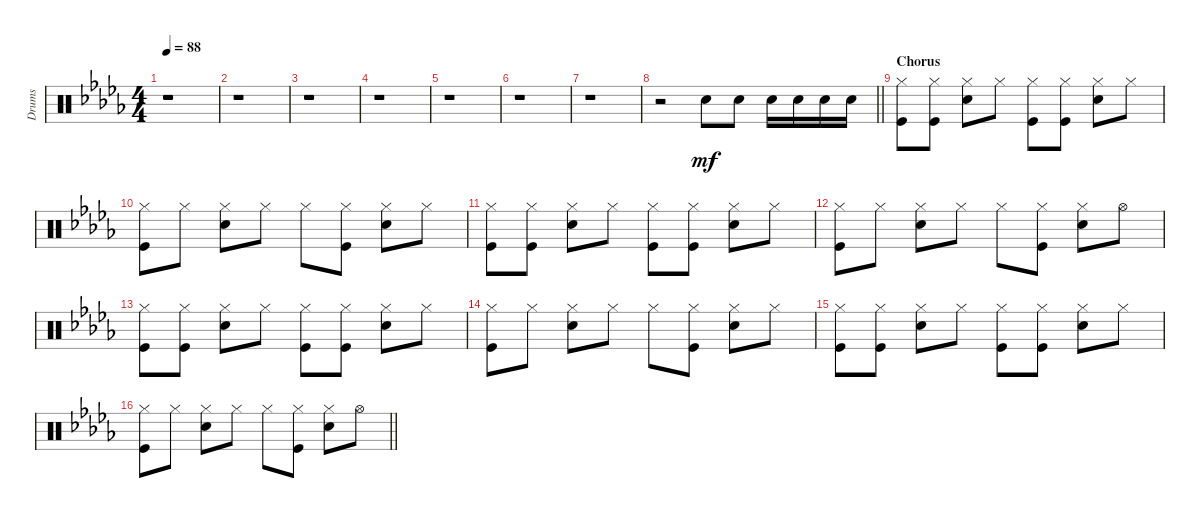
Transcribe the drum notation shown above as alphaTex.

\track ("Drums" "Drums") {instrument percussion}
\staff {score}
\articulation defaults
\ts (4 4)
\tempo 88
\clef neutral
\ks bbminor
r.1{dy mf} |
r.1 |
r.1 |
r.1 |
r.1 |
r.1 |
r.1 |
\barLineRight lightlight
r.2 "Electric Snare (hit)".8 "Electric Snare (hit)".8 "Electric Snare (hit)".16 "Electric Snare (hit)".16 "Electric Snare (hit)".16 "Electric Snare (hit)".16 |
\section ("" "Chorus")
("Hi-Hat (closed)" "Kick (hit)").8 ("Hi-Hat (closed)" "Kick (hit)").8 ("Hi-Hat (closed)" "Electric Snare (hit)").8 "Hi-Hat (closed)".8 ("Hi-Hat (closed)" "Kick (hit)").8 ("Hi-Hat (closed)" "Kick (hit)").8 ("Hi-Hat (closed)" "Electric Snare (hit)").8 "Hi-Hat (closed)".8 |
("Hi-Hat (closed)" "Kick (hit)").8 "Hi-Hat (closed)".8 ("Hi-Hat (closed)" "Electric Snare (hit)").8 "Hi-Hat (closed)".8 "Hi-Hat (closed)".8 ("Hi-Hat (closed)" "Kick (hit)").8 ("Hi-Hat (closed)" "Electric Snare (hit)").8 "Hi-Hat (closed)".8 |
("Hi-Hat (closed)" "Kick (hit)").8 ("Hi-Hat (closed)" "Kick (hit)").8 ("Hi-Hat (closed)" "Electric Snare (hit)").8 "Hi-Hat (closed)".8 ("Hi-Hat (closed)" "Kick (hit)").8 ("Hi-Hat (closed)" "Kick (hit)").8 ("Hi-Hat (closed)" "Electric Snare (hit)").8 "Hi-Hat (closed)".8 |
("Hi-Hat (closed)" "Kick (hit)").8 "Hi-Hat (closed)".8 ("Hi-Hat (closed)" "Electric Snare (hit)").8 "Hi-Hat (closed)".8 "Hi-Hat (closed)".8 ("Hi-Hat (closed)" "Kick (hit)").8 ("Hi-Hat (closed)" "Electric Snare (hit)").8 "Hi-Hat (open)".8 |
("Hi-Hat (closed)" "Kick (hit)").8 ("Hi-Hat (closed)" "Kick (hit)").8 ("Hi-Hat (closed)" "Electric Snare (hit)").8 "Hi-Hat (closed)".8 ("Hi-Hat (closed)" "Kick (hit)").8 ("Hi-Hat (closed)" "Kick (hit)").8 ("Hi-Hat (closed)" "Electric Snare (hit)").8 "Hi-Hat (closed)".8 |
("Hi-Hat (closed)" "Kick (hit)").8 "Hi-Hat (closed)".8 ("Hi-Hat (closed)" "Electric Snare (hit)").8 "Hi-Hat (closed)".8 "Hi-Hat (closed)".8 ("Hi-Hat (closed)" "Kick (hit)").8 ("Hi-Hat (closed)" "Electric Snare (hit)").8 "Hi-Hat (closed)".8 |
("Hi-Hat (closed)" "Kick (hit)").8 ("Hi-Hat (closed)" "Kick (hit)").8 ("Hi-Hat (closed)" "Electric Snare (hit)").8 "Hi-Hat (closed)".8 ("Hi-Hat (closed)" "Kick (hit)").8 ("Hi-Hat (closed)" "Kick (hit)").8 ("Hi-Hat (closed)" "Electric Snare (hit)").8 "Hi-Hat (closed)".8 |
\barLineRight lightlight
("Hi-Hat (closed)" "Kick (hit)").8 "Hi-Hat (closed)".8 ("Hi-Hat (closed)" "Electric Snare (hit)").8 "Hi-Hat (closed)".8 "Hi-Hat (closed)".8 ("Hi-Hat (closed)" "Kick (hit)").8 ("Hi-Hat (closed)" "Electric Snare (hit)").8 "Hi-Hat (open)".8
